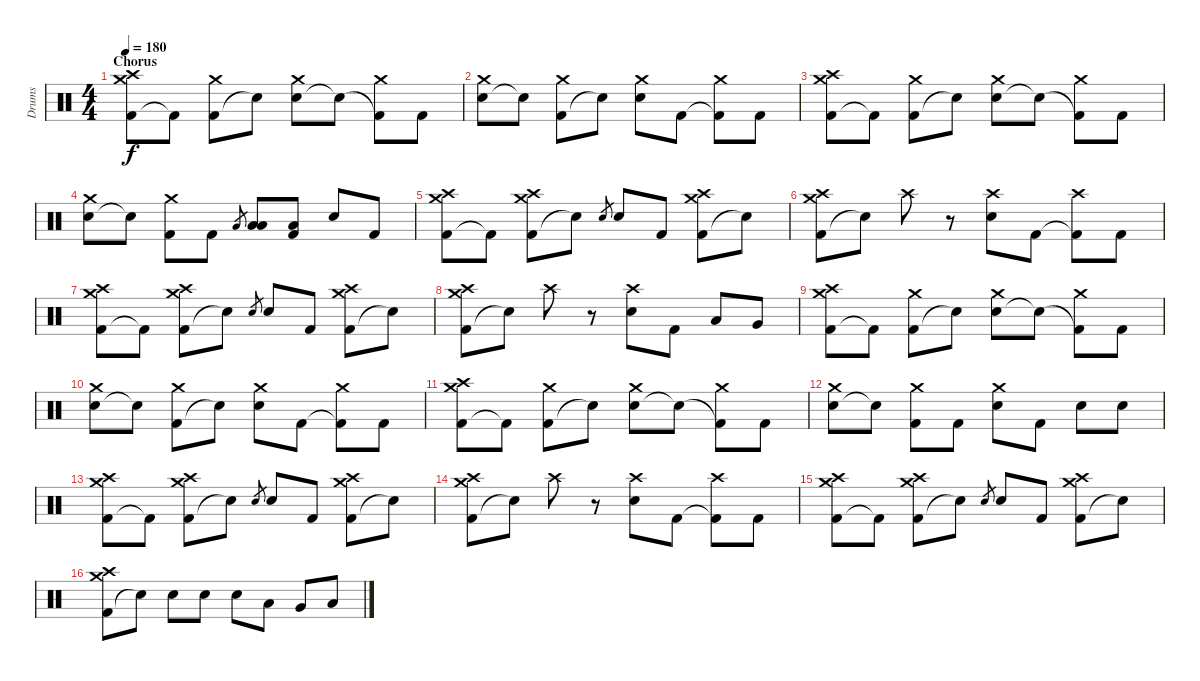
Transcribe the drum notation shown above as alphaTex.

\track ("Drums" "Drums") {instrument percussion}
\staff {score}
\articulation defaults
\ts (4 4)
\section ("" "Chorus")
\tempo 180
\clef neutral
\ks c
("Kick (hit) 2" "Crash medium (hit)" "Crash high (hit)").8{dy f} "Kick (hit) 2"{t}.8 ("Kick (hit) 2" "Crash medium (hit)").8 "Snare (hit)"{t}.8 ("Electric Snare (hit)" "Crash medium (hit)").8 "Snare (hit)"{t}.8 ("Kick (hit) 2"{t} "Crash medium (hit)").8 "Kick (hit) 2".8 |
("Electric Snare (hit)" "Crash medium (hit)").8 "Snare (hit)"{t}.8 ("Kick (hit) 2" "Crash medium (hit)").8 "Snare (hit)"{t}.8 ("Electric Snare (hit)" "Crash medium (hit)").8 "Kick (hit) 2".8 ("Kick (hit) 2"{t} "Crash medium (hit)").8 "Kick (hit) 2".8 |
("Kick (hit) 2" "Crash medium (hit)" "Crash high (hit)").8 "Kick (hit) 2"{t}.8 ("Kick (hit) 2" "Crash medium (hit)").8 "Snare (hit)"{t}.8 ("Electric Snare (hit)" "Crash medium (hit)").8 "Snare (hit)"{t}.8 ("Kick (hit) 2"{t} "Crash medium (hit)").8 "Kick (hit) 2".8 |
("Electric Snare (hit)" "Crash medium (hit)").8 "Snare (hit)"{t}.8 ("Kick (hit) 2" "Crash medium (hit)").8 "Kick (hit) 2".8 "Low Tom (hit)".8{gr} ("Low Tom (hit)" "Low Floor Tom (hit)").8 ("Kick (hit) 2" "Low Floor Tom (hit)").8 "Electric Snare (hit)".8 "Kick (hit) 2".8 |
("Kick (hit) 2" "Crash medium (hit)" "Crash high (hit)").8 "Kick (hit) 2"{t}.8 ("Kick (hit) 2" "Crash medium (hit)" "Crash high (hit)").8 "Electric Snare (hit)"{t}.8 "Electric Snare (hit)".8{gr} "Electric Snare (hit)".8 "Kick (hit) 2".8 ("Kick (hit) 2" "Crash medium (hit)" "Crash high (hit)").8 "Snare (hit)"{t}.8 |
("Kick (hit) 2" "Crash medium (hit)" "Crash high (hit)").8 "Snare (hit)"{t}.8 "Crash high (hit)".8 r.8 ("Electric Snare (hit)" "Crash high (hit)").8 "Kick (hit) 2".8 ("Kick (hit) 2"{t} "Crash high (hit)").8 "Kick (hit) 2".8 |
("Kick (hit) 2" "Crash medium (hit)" "Crash high (hit)").8 "Kick (hit) 2"{t}.8 ("Kick (hit) 2" "Crash medium (hit)" "Crash high (hit)").8 "Electric Snare (hit)"{t}.8 "Electric Snare (hit)".8{gr} "Electric Snare (hit)".8 "Kick (hit) 2".8 ("Kick (hit) 2" "Crash medium (hit)" "Crash high (hit)").8 "Snare (hit)"{t}.8 |
("Kick (hit) 2" "Crash medium (hit)" "Crash high (hit)").8 "Snare (hit)"{t}.8 "Crash high (hit)".8 r.8 ("Electric Snare (hit)" "Crash high (hit)").8 "Kick (hit) 2".8 "Low Tom (hit)".8 "Very Low Tom (hit)".8 |
("Kick (hit) 2" "Crash medium (hit)" "Crash high (hit)").8 "Kick (hit) 2"{t}.8 ("Kick (hit) 2" "Crash medium (hit)").8 "Snare (hit)"{t}.8 ("Electric Snare (hit)" "Crash medium (hit)").8 "Snare (hit)"{t}.8 ("Kick (hit) 2"{t} "Crash medium (hit)").8 "Kick (hit) 2".8 |
("Electric Snare (hit)" "Crash medium (hit)").8 "Snare (hit)"{t}.8 ("Kick (hit) 2" "Crash medium (hit)").8 "Snare (hit)"{t}.8 ("Electric Snare (hit)" "Crash medium (hit)").8 "Kick (hit) 2".8 ("Kick (hit) 2"{t} "Crash medium (hit)").8 "Kick (hit) 2".8 |
("Kick (hit) 2" "Crash medium (hit)" "Crash high (hit)").8 "Kick (hit) 2"{t}.8 ("Kick (hit) 2" "Crash medium (hit)").8 "Snare (hit)"{t}.8 ("Electric Snare (hit)" "Crash medium (hit)").8 "Snare (hit)"{t}.8 ("Kick (hit) 2"{t} "Crash medium (hit)").8 "Kick (hit) 2".8 |
("Electric Snare (hit)" "Crash medium (hit)").8 "Snare (hit)"{t}.8 ("Kick (hit) 2" "Crash medium (hit)").8 "Kick (hit) 2".8 ("Electric Snare (hit)" "Crash medium (hit)").8 "Kick (hit) 2".8 "Electric Snare (hit)".8 "Electric Snare (hit)".8 |
("Kick (hit) 2" "Crash medium (hit)" "Crash high (hit)").8 "Kick (hit) 2"{t}.8 ("Kick (hit) 2" "Crash medium (hit)" "Crash high (hit)").8 "Electric Snare (hit)"{t}.8 "Electric Snare (hit)".8{gr} "Electric Snare (hit)".8 "Kick (hit) 2".8 ("Kick (hit) 2" "Crash medium (hit)" "Crash high (hit)").8 "Snare (hit)"{t}.8 |
("Kick (hit) 2" "Crash medium (hit)" "Crash high (hit)").8 "Snare (hit)"{t}.8 "Crash high (hit)".8 r.8 ("Electric Snare (hit)" "Crash high (hit)").8 "Kick (hit) 2".8 ("Kick (hit) 2"{t} "Crash high (hit)").8 "Kick (hit) 2".8 |
("Kick (hit) 2" "Crash medium (hit)" "Crash high (hit)").8 "Kick (hit) 2"{t}.8 ("Kick (hit) 2" "Crash medium (hit)" "Crash high (hit)").8 "Electric Snare (hit)"{t}.8 "Electric Snare (hit)".8{gr} "Electric Snare (hit)".8 "Kick (hit) 2".8 ("Kick (hit) 2" "Crash medium (hit)" "Crash high (hit)").8 "Snare (hit)"{t}.8 |
("Kick (hit) 2" "Crash medium (hit)" "Crash high (hit)").8 "Snare (hit)"{t}.8 "Electric Snare (hit)".8 "Electric Snare (hit)".8 "Electric Snare (hit)".8 "Low Tom (hit)".8 "Very Low Tom (hit)".8 "Low Floor Tom (hit)".8
